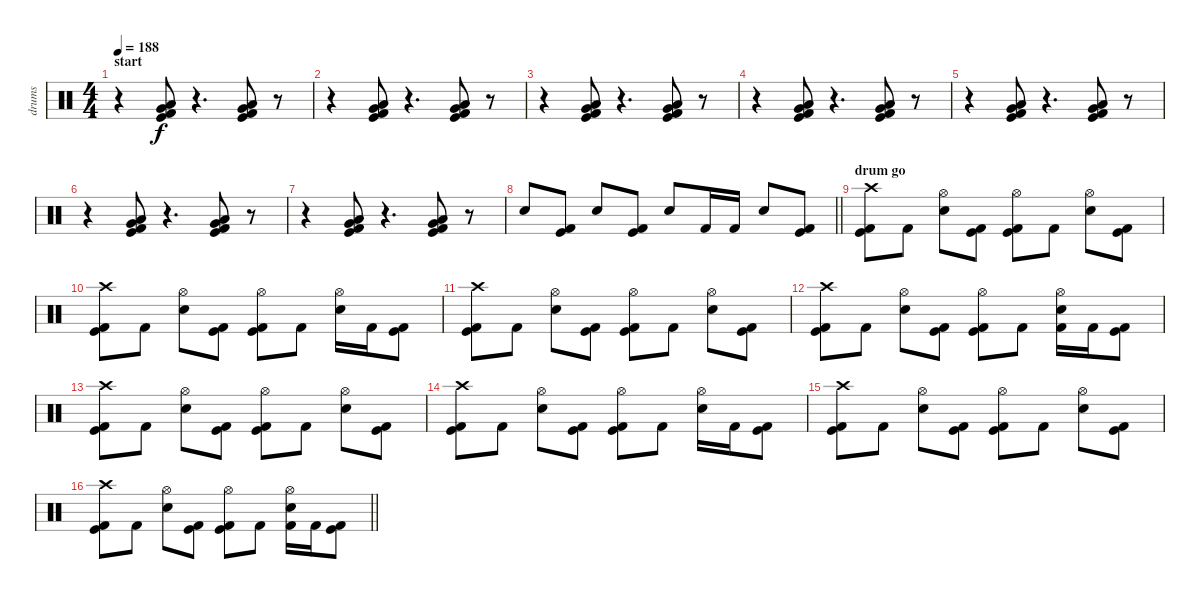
\track ("drums" "drums") {instrument percussion}
\staff {score}
\articulation defaults
\ts (4 4)
\section ("" "start")
\tempo 188
\clef neutral
\ks c
r.4{dy f} ("Low Floor Tom (hit)" "Very Low Tom (hit)" "Kick (hit)" "Kick (hit) 2").8 r.4{d} ("Low Floor Tom (hit)" "Very Low Tom (hit)" "Kick (hit)" "Kick (hit) 2").8 r.8 |
r.4 ("Low Floor Tom (hit)" "Very Low Tom (hit)" "Kick (hit)" "Kick (hit) 2").8 r.4{d} ("Low Floor Tom (hit)" "Very Low Tom (hit)" "Kick (hit)" "Kick (hit) 2").8 r.8 |
r.4 ("Low Floor Tom (hit)" "Very Low Tom (hit)" "Kick (hit)" "Kick (hit) 2").8 r.4{d} ("Low Floor Tom (hit)" "Very Low Tom (hit)" "Kick (hit)" "Kick (hit) 2").8 r.8 |
r.4 ("Low Floor Tom (hit)" "Very Low Tom (hit)" "Kick (hit)" "Kick (hit) 2").8 r.4{d} ("Low Floor Tom (hit)" "Very Low Tom (hit)" "Kick (hit)" "Kick (hit) 2").8 r.8 |
r.4 ("Low Floor Tom (hit)" "Very Low Tom (hit)" "Kick (hit)" "Kick (hit) 2").8 r.4{d} ("Low Floor Tom (hit)" "Very Low Tom (hit)" "Kick (hit)" "Kick (hit) 2").8 r.8 |
r.4 ("Low Floor Tom (hit)" "Very Low Tom (hit)" "Kick (hit)" "Kick (hit) 2").8 r.4{d} ("Low Floor Tom (hit)" "Very Low Tom (hit)" "Kick (hit)" "Kick (hit) 2").8 r.8 |
r.4 ("Low Floor Tom (hit)" "Very Low Tom (hit)" "Kick (hit)" "Kick (hit) 2").8 r.4{d} ("Low Floor Tom (hit)" "Very Low Tom (hit)" "Kick (hit)" "Kick (hit) 2").8 r.8 |
\barLineRight lightlight "Snare (hit) 2".8
("Kick (hit)" "Kick (hit) 2").8 "Snare (hit) 2".8 ("Kick (hit)" "Kick (hit) 2").8 "Snare (hit) 2".8 "Kick (hit) 2".16 "Kick (hit) 2".16 "Snare (hit) 2".8 ("Kick (hit)" "Kick (hit) 2").8 |
\section ("" "drum go")
("Crash high (hit)" "Kick (hit)" "Kick (hit) 2").8 "Kick (hit) 2".8 ("Hi-Hat (open)" "Snare (hit) 2").8 ("Kick (hit)" "Kick (hit) 2").8 ("Hi-Hat (open)" "Kick (hit)" "Kick (hit) 2").8 "Kick (hit) 2".8 ("Hi-Hat (open)" "Snare (hit) 2").8 ("Kick (hit)" "Kick (hit) 2").8 |
("Crash high (hit)" "Kick (hit)" "Kick (hit) 2").8 "Kick (hit) 2".8 ("Hi-Hat (open)" "Snare (hit) 2").8 ("Kick (hit)" "Kick (hit) 2").8 ("Hi-Hat (open)" "Kick (hit)" "Kick (hit) 2").8 "Kick (hit) 2".8 ("Hi-Hat (open)" "Snare (hit) 2").16 "Kick (hit) 2".16 ("Kick (hit)" "Kick (hit) 2").8 |
("Crash high (hit)" "Kick (hit)" "Kick (hit) 2").8 "Kick (hit) 2".8 ("Hi-Hat (open)" "Snare (hit) 2").8 ("Kick (hit)" "Kick (hit) 2").8 ("Hi-Hat (open)" "Kick (hit)" "Kick (hit) 2").8 "Kick (hit) 2".8 ("Hi-Hat (open)" "Snare (hit) 2").8 ("Kick (hit)" "Kick (hit) 2").8 |
("Crash high (hit)" "Kick (hit)" "Kick (hit) 2").8 "Kick (hit) 2".8 ("Hi-Hat (open)" "Snare (hit) 2").8 ("Kick (hit)" "Kick (hit) 2").8 ("Hi-Hat (open)" "Kick (hit)" "Kick (hit) 2").8 "Kick (hit) 2".8 ("Hi-Hat (open)" "Snare (hit) 2" "Kick (hit) 2").16 "Kick (hit) 2".16 ("Kick (hit)" "Kick (hit) 2").8 |
("Crash high (hit)" "Kick (hit)" "Kick (hit) 2").8 "Kick (hit) 2".8 ("Hi-Hat (open)" "Snare (hit) 2").8 ("Kick (hit)" "Kick (hit) 2").8 ("Hi-Hat (open)" "Kick (hit)" "Kick (hit) 2").8 "Kick (hit) 2".8 ("Hi-Hat (open)" "Snare (hit) 2").8 ("Kick (hit)" "Kick (hit) 2").8 |
("Crash high (hit)" "Kick (hit)" "Kick (hit) 2").8 "Kick (hit) 2".8 ("Hi-Hat (open)" "Snare (hit) 2").8 ("Kick (hit)" "Kick (hit) 2").8 ("Hi-Hat (open)" "Kick (hit)" "Kick (hit) 2").8 "Kick (hit) 2".8 ("Hi-Hat (open)" "Snare (hit) 2").16 "Kick (hit) 2".16 ("Kick (hit)" "Kick (hit) 2").8 |
("Crash high (hit)" "Kick (hit)" "Kick (hit) 2").8 "Kick (hit) 2".8 ("Hi-Hat (open)" "Snare (hit) 2").8 ("Kick (hit)" "Kick (hit) 2").8 ("Hi-Hat (open)" "Kick (hit)" "Kick (hit) 2").8 "Kick (hit) 2".8 ("Hi-Hat (open)" "Snare (hit) 2").8 ("Kick (hit)" "Kick (hit) 2").8 |
\barLineRight lightlight
("Crash high (hit)" "Kick (hit)" "Kick (hit) 2").8 "Kick (hit) 2".8 ("Hi-Hat (open)" "Snare (hit) 2").8 ("Kick (hit)" "Kick (hit) 2").8 ("Hi-Hat (open)" "Kick (hit)" "Kick (hit) 2").8 "Kick (hit) 2".8 ("Hi-Hat (open)" "Snare (hit) 2" "Kick (hit) 2").16 "Kick (hit) 2".16 ("Kick (hit)" "Kick (hit) 2").8
